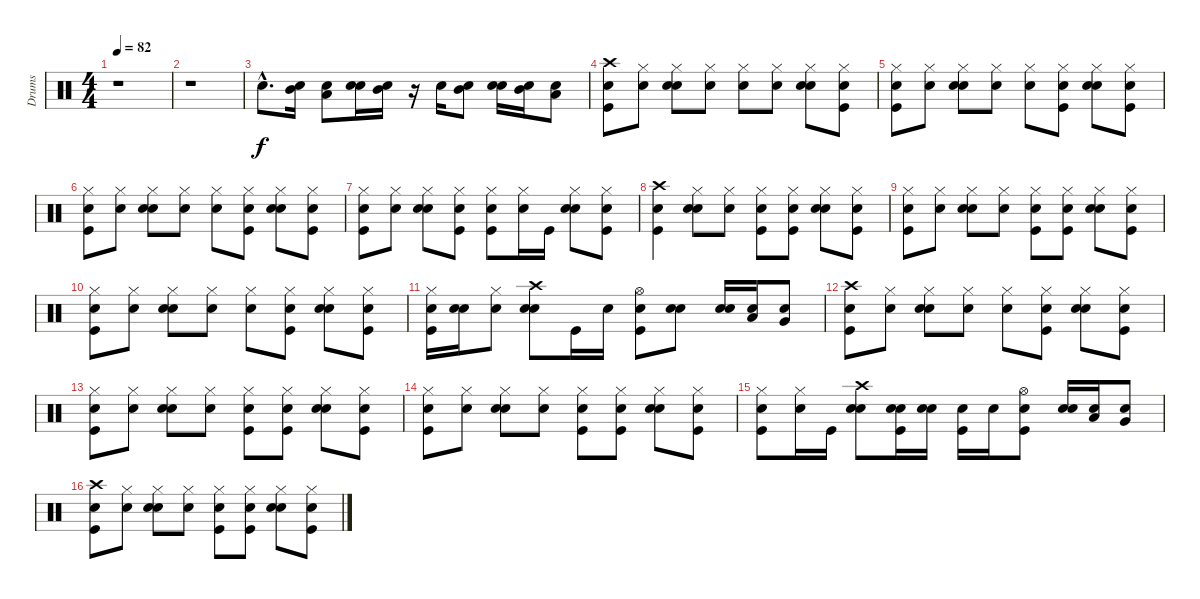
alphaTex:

\track ("Drums" "Drums") {instrument percussion}
\staff {score}
\articulation defaults
\ts (4 4)
\tempo 82
\clef neutral
\ks c
r.1{dy f} |
r.1 |
"Electric Snare (hit)"{hac}.8{d} ("Snare (hit)" "Mid Tom (hit)").16 ("Snare (hit)" "Low Tom (hit)").8 ("Snare (hit)" "Electric Snare (hit)").16 ("Snare (hit)" "Mid Tom (hit)").16 r.16 "Electric Snare (hit)".16 ("Snare (hit)" "Mid Tom (hit)").8 ("Snare (hit)" "Electric Snare (hit)").16 ("Snare (hit)" "Mid Tom (hit)").16 ("Snare (hit)" "Low Tom (hit)").8 |
("Snare (hit)" "Kick (hit)" "Crash high (hit)").8 ("Snare (hit)" "Hi-Hat (closed)").8 ("Snare (hit)" "Electric Snare (hit)" "Hi-Hat (closed)").8 ("Snare (hit)" "Hi-Hat (closed)").8 ("Snare (hit)" "Hi-Hat (closed)").8 ("Snare (hit)" "Hi-Hat (closed)").8 ("Snare (hit)" "Electric Snare (hit)" "Hi-Hat (closed)").8 ("Snare (hit)" "Kick (hit)" "Hi-Hat (closed)").8 |
("Snare (hit)" "Kick (hit)" "Hi-Hat (closed)").8 ("Snare (hit)" "Hi-Hat (closed)").8 ("Snare (hit)" "Electric Snare (hit)" "Hi-Hat (closed)").8 ("Snare (hit)" "Hi-Hat (closed)").8 ("Snare (hit)" "Hi-Hat (closed)").8 ("Snare (hit)" "Kick (hit)" "Hi-Hat (closed)").8 ("Snare (hit)" "Electric Snare (hit)" "Hi-Hat (closed)").8 ("Snare (hit)" "Kick (hit)" "Hi-Hat (closed)").8 |
("Snare (hit)" "Kick (hit)" "Hi-Hat (closed)").8 ("Snare (hit)" "Hi-Hat (closed)").8 ("Snare (hit)" "Electric Snare (hit)" "Hi-Hat (closed)").8 ("Snare (hit)" "Hi-Hat (closed)").8 ("Snare (hit)" "Hi-Hat (closed)").8 ("Snare (hit)" "Kick (hit)" "Hi-Hat (closed)").8 ("Snare (hit)" "Electric Snare (hit)" "Hi-Hat (closed)").8 ("Snare (hit)" "Kick (hit)" "Hi-Hat (closed)").8 |
("Snare (hit)" "Kick (hit)" "Hi-Hat (closed)").8 ("Snare (hit)" "Hi-Hat (closed)").8 ("Snare (hit)" "Electric Snare (hit)" "Hi-Hat (closed)").8 ("Snare (hit)" "Kick (hit)" "Hi-Hat (closed)").8 ("Snare (hit)" "Kick (hit)" "Hi-Hat (closed)").8 ("Snare (hit)" "Hi-Hat (closed)").16 "Kick (hit)".16 ("Snare (hit)" "Electric Snare (hit)" "Hi-Hat (closed)").8 ("Snare (hit)" "Kick (hit)" "Hi-Hat (closed)").8 |
("Snare (hit)" "Kick (hit)" "Crash high (hit)").4 ("Snare (hit)" "Electric Snare (hit)" "Hi-Hat (closed)").8 ("Snare (hit)" "Hi-Hat (closed)").8 ("Snare (hit)" "Kick (hit)" "Hi-Hat (closed)").8 ("Snare (hit)" "Kick (hit)" "Hi-Hat (closed)").8 ("Snare (hit)" "Electric Snare (hit)" "Hi-Hat (closed)").8 ("Snare (hit)" "Kick (hit)" "Hi-Hat (closed)").8 |
("Snare (hit)" "Kick (hit)" "Hi-Hat (closed)").8 ("Snare (hit)" "Hi-Hat (closed)").8 ("Snare (hit)" "Electric Snare (hit)" "Hi-Hat (closed)").8 ("Snare (hit)" "Hi-Hat (closed)").8 ("Snare (hit)" "Kick (hit)" "Hi-Hat (closed)").8 ("Snare (hit)" "Kick (hit)" "Hi-Hat (closed)").8 ("Snare (hit)" "Electric Snare (hit)" "Hi-Hat (closed)").8 ("Snare (hit)" "Kick (hit)" "Hi-Hat (closed)").8 |
("Snare (hit)" "Kick (hit)" "Hi-Hat (closed)").8 ("Snare (hit)" "Hi-Hat (closed)").8 ("Snare (hit)" "Electric Snare (hit)" "Hi-Hat (closed)").8 ("Snare (hit)" "Hi-Hat (closed)").8 ("Snare (hit)" "Hi-Hat (closed)").8 ("Snare (hit)" "Kick (hit)" "Hi-Hat (closed)").8 ("Snare (hit)" "Electric Snare (hit)" "Hi-Hat (closed)").8 ("Snare (hit)" "Kick (hit)" "Hi-Hat (closed)").8 |
("Snare (hit)" "Kick (hit)" "Hi-Hat (closed)").16 ("Snare (hit)" "Electric Snare (hit)").16 ("Snare (hit)" "Hi-Hat (closed)").8 ("Snare (hit)" "Electric Snare (hit)" "Crash high (hit)").8 "Kick (hit)".16 "Electric Snare (hit)".16 ("Snare (hit)" "Kick (hit)" "Hi-Hat (open)").8 ("Snare (hit)" "Electric Snare (hit)").8 ("Snare (hit)" "Electric Snare (hit)").16 ("Snare (hit)" "Low Tom (hit)").16 ("Snare (hit)" "Very Low Tom (hit)").8 |
("Snare (hit)" "Kick (hit)" "Crash high (hit)").8 ("Snare (hit)" "Hi-Hat (closed)").8 ("Snare (hit)" "Electric Snare (hit)" "Hi-Hat (closed)").8 ("Snare (hit)" "Hi-Hat (closed)").8 ("Snare (hit)" "Hi-Hat (closed)").8 ("Snare (hit)" "Kick (hit)" "Hi-Hat (closed)").8 ("Snare (hit)" "Electric Snare (hit)" "Hi-Hat (closed)").8 ("Snare (hit)" "Kick (hit)" "Hi-Hat (closed)").8 |
("Snare (hit)" "Kick (hit)" "Hi-Hat (closed)").8 ("Snare (hit)" "Hi-Hat (closed)").8 ("Snare (hit)" "Electric Snare (hit)" "Hi-Hat (closed)").8 ("Snare (hit)" "Hi-Hat (closed)").8 ("Snare (hit)" "Kick (hit)" "Hi-Hat (closed)").8 ("Snare (hit)" "Kick (hit)" "Hi-Hat (closed)").8 ("Snare (hit)" "Electric Snare (hit)" "Hi-Hat (closed)").8 ("Snare (hit)" "Kick (hit)" "Hi-Hat (closed)").8 |
("Snare (hit)" "Kick (hit)" "Hi-Hat (closed)").8 ("Snare (hit)" "Hi-Hat (closed)").8 ("Snare (hit)" "Electric Snare (hit)" "Hi-Hat (closed)").8 ("Snare (hit)" "Hi-Hat (closed)").8 ("Snare (hit)" "Kick (hit)" "Hi-Hat (closed)").8 ("Snare (hit)" "Kick (hit)" "Hi-Hat (closed)").8 ("Snare (hit)" "Electric Snare (hit)" "Hi-Hat (closed)").8 ("Snare (hit)" "Kick (hit)" "Hi-Hat (closed)").8 |
("Snare (hit)" "Kick (hit)" "Hi-Hat (closed)").8 ("Snare (hit)" "Hi-Hat (closed)").16 "Kick (hit)".16 ("Snare (hit)" "Electric Snare (hit)" "Crash high (hit)").8 ("Snare (hit)" "Kick (hit)" "Electric Snare (hit)").16 ("Snare (hit)" "Electric Snare (hit)").16 ("Snare (hit)" "Kick (hit)").16 "Electric Snare (hit)".16 ("Snare (hit)" "Kick (hit)" "Hi-Hat (open)").8 ("Snare (hit)" "Electric Snare (hit)").16 ("Snare (hit)" "Low Tom (hit)").16 ("Snare (hit)" "Very Low Tom (hit)").8 |
("Snare (hit)" "Kick (hit)" "Crash high (hit)").8 ("Snare (hit)" "Hi-Hat (closed)").8 ("Snare (hit)" "Electric Snare (hit)" "Hi-Hat (closed)").8 ("Snare (hit)" "Hi-Hat (closed)").8 ("Snare (hit)" "Kick (hit)" "Hi-Hat (closed)").8 ("Snare (hit)" "Kick (hit)" "Hi-Hat (closed)").8 ("Snare (hit)" "Electric Snare (hit)" "Hi-Hat (closed)").8 ("Snare (hit)" "Kick (hit)" "Hi-Hat (closed)").8
